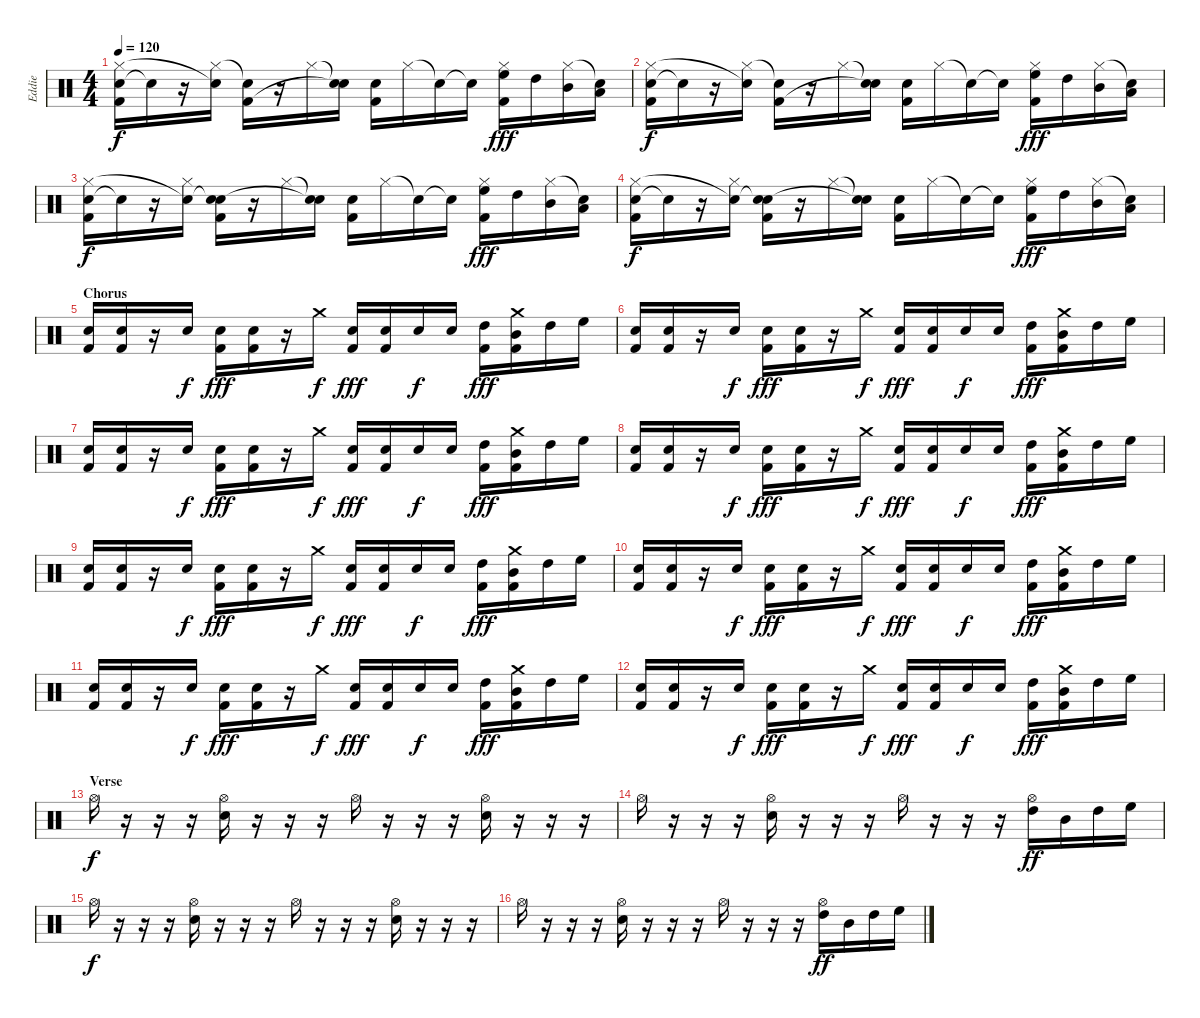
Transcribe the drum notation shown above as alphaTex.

\track ("Eddie" "Eddie") {instrument percussion}
\staff {score}
\articulation defaults
\ts (4 4)
\tempo 120
\clef neutral
\ks c
("Snare (hit) 2" "Hi-Hat (closed)" "Kick (hit) 2").16{dy f} "Snare (hit)"{t}.16 r.16 ("Hi-Hat (closed)" "Snare (hit)"{t}).16 ("Snare (hit)"{t} "Kick (hit) 2").16 r.16 "Hi-Hat (closed)".16 ("Snare (hit)"{t} "Snare (hit)"{t}).16 ("Snare (hit) 2" "Kick (hit) 2").16 "Hi-Hat (closed)".16 "Snare (hit)"{t}.16 "Snare (hit)"{t}.16 ("High Floor Tom (hit)" "Hi-Hat (closed)" "Kick (hit) 2").16{dy fff} "High Tom (hit)".16 ("Mid Tom (hit)" "Hi-Hat (closed)").16 ("Low Tom (hit)" "Snare (hit)"{t}).16 |
("Snare (hit) 2" "Hi-Hat (closed)" "Kick (hit) 2").16{dy f} "Snare (hit)"{t}.16 r.16 ("Hi-Hat (closed)" "Snare (hit)"{t}).16 ("Snare (hit)"{t} "Kick (hit) 2").16 r.16 "Hi-Hat (closed)".16 ("Snare (hit)"{t} "Snare (hit)"{t}).16 ("Snare (hit) 2" "Kick (hit) 2").16 "Hi-Hat (closed)".16 "Snare (hit)"{t}.16 "Snare (hit)"{t}.16 ("High Floor Tom (hit)" "Hi-Hat (closed)" "Kick (hit) 2").16{dy fff} "High Tom (hit)".16 ("Mid Tom (hit)" "Hi-Hat (closed)").16 ("Low Tom (hit)" "Snare (hit)"{t}).16 |
("Snare (hit) 2" "Hi-Hat (closed)" "Kick (hit) 2").16{dy f} "Snare (hit)"{t}.16 r.16 ("Hi-Hat (closed)" "Snare (hit)"{t}).16 ("Snare (hit) 2" "Snare (hit)"{t} "Kick (hit) 2").16 r.16 "Hi-Hat (closed)".16 ("Snare (hit)"{t} "Snare (hit)"{t}).16 ("Snare (hit) 2" "Kick (hit) 2").16 "Hi-Hat (closed)".16 "Snare (hit)"{t}.16 "Snare (hit)"{t}.16 ("High Floor Tom (hit)" "Hi-Hat (closed)" "Kick (hit) 2").16{dy fff} "High Tom (hit)".16 ("Mid Tom (hit)" "Hi-Hat (closed)").16 ("Low Tom (hit)" "Snare (hit)"{t}).16 |
("Snare (hit) 2" "Hi-Hat (closed)" "Kick (hit) 2").16{dy f} "Snare (hit)"{t}.16 r.16 ("Hi-Hat (closed)" "Snare (hit)"{t}).16 ("Snare (hit) 2" "Snare (hit)"{t} "Kick (hit) 2").16 r.16 "Hi-Hat (closed)".16 ("Snare (hit)"{t} "Snare (hit)"{t}).16 ("Snare (hit) 2" "Kick (hit) 2").16 "Hi-Hat (closed)".16 "Snare (hit)"{t}.16 "Snare (hit)"{t}.16 ("High Floor Tom (hit)" "Hi-Hat (closed)" "Kick (hit) 2").16{dy fff} "High Tom (hit)".16 ("Mid Tom (hit)" "Hi-Hat (closed)").16 ("Low Tom (hit)" "Snare (hit)"{t}).16 |
\section ("" "Chorus")
("Snare (hit) 2" "Kick (hit) 2").16 ("Electric Snare (hit)" "Kick (hit) 2").16 r.16 "Electric Snare (hit)".16{dy f} ("Snare (hit) 2" "Kick (hit) 2").16{dy fff} ("Electric Snare (hit)" "Kick (hit) 2").16 r.16 "Crash medium (hit)".16{dy f} ("Snare (hit) 2" "Kick (hit) 2").16{dy fff} ("Electric Snare (hit)" "Kick (hit) 2").16 "Snare (hit) 2".16{dy f} "Electric Snare (hit)".16 ("High Tom (hit)" "Kick (hit) 2").16{dy fff} ("Mid Tom (hit)" "Crash medium (hit)" "Kick (hit) 2").16 "High Tom (hit)".16 "High Floor Tom (hit)".16 |
("Snare (hit) 2" "Kick (hit) 2").16 ("Electric Snare (hit)" "Kick (hit) 2").16 r.16 "Electric Snare (hit)".16{dy f} ("Snare (hit) 2" "Kick (hit) 2").16{dy fff} ("Electric Snare (hit)" "Kick (hit) 2").16 r.16 "Crash medium (hit)".16{dy f} ("Snare (hit) 2" "Kick (hit) 2").16{dy fff} ("Electric Snare (hit)" "Kick (hit) 2").16 "Snare (hit) 2".16{dy f} "Electric Snare (hit)".16 ("High Tom (hit)" "Kick (hit) 2").16{dy fff} ("Mid Tom (hit)" "Crash medium (hit)" "Kick (hit) 2").16 "High Tom (hit)".16 "High Floor Tom (hit)".16 |
("Snare (hit) 2" "Kick (hit) 2").16 ("Electric Snare (hit)" "Kick (hit) 2").16 r.16 "Electric Snare (hit)".16{dy f} ("Snare (hit) 2" "Kick (hit) 2").16{dy fff} ("Electric Snare (hit)" "Kick (hit) 2").16 r.16 "Crash medium (hit)".16{dy f} ("Snare (hit) 2" "Kick (hit) 2").16{dy fff} ("Electric Snare (hit)" "Kick (hit) 2").16 "Snare (hit) 2".16{dy f} "Electric Snare (hit)".16 ("High Tom (hit)" "Kick (hit) 2").16{dy fff} ("Mid Tom (hit)" "Crash medium (hit)" "Kick (hit) 2").16 "High Tom (hit)".16 "High Floor Tom (hit)".16 |
("Snare (hit) 2" "Kick (hit) 2").16 ("Electric Snare (hit)" "Kick (hit) 2").16 r.16 "Electric Snare (hit)".16{dy f} ("Snare (hit) 2" "Kick (hit) 2").16{dy fff} ("Electric Snare (hit)" "Kick (hit) 2").16 r.16 "Crash medium (hit)".16{dy f} ("Snare (hit) 2" "Kick (hit) 2").16{dy fff} ("Electric Snare (hit)" "Kick (hit) 2").16 "Snare (hit) 2".16{dy f} "Electric Snare (hit)".16 ("High Tom (hit)" "Kick (hit) 2").16{dy fff} ("Mid Tom (hit)" "Crash medium (hit)" "Kick (hit) 2").16 "High Tom (hit)".16 "High Floor Tom (hit)".16 |
("Snare (hit) 2" "Kick (hit) 2").16 ("Electric Snare (hit)" "Kick (hit) 2").16 r.16 "Electric Snare (hit)".16{dy f} ("Snare (hit) 2" "Kick (hit) 2").16{dy fff} ("Electric Snare (hit)" "Kick (hit) 2").16 r.16 "Crash medium (hit)".16{dy f} ("Snare (hit) 2" "Kick (hit) 2").16{dy fff} ("Electric Snare (hit)" "Kick (hit) 2").16 "Snare (hit) 2".16{dy f} "Electric Snare (hit)".16 ("High Tom (hit)" "Kick (hit) 2").16{dy fff} ("Mid Tom (hit)" "Crash medium (hit)" "Kick (hit) 2").16 "High Tom (hit)".16 "High Floor Tom (hit)".16 |
("Snare (hit) 2" "Kick (hit) 2").16 ("Electric Snare (hit)" "Kick (hit) 2").16 r.16 "Electric Snare (hit)".16{dy f} ("Snare (hit) 2" "Kick (hit) 2").16{dy fff} ("Electric Snare (hit)" "Kick (hit) 2").16 r.16 "Crash medium (hit)".16{dy f} ("Snare (hit) 2" "Kick (hit) 2").16{dy fff} ("Electric Snare (hit)" "Kick (hit) 2").16 "Snare (hit) 2".16{dy f} "Electric Snare (hit)".16 ("High Tom (hit)" "Kick (hit) 2").16{dy fff} ("Mid Tom (hit)" "Crash medium (hit)" "Kick (hit) 2").16 "High Tom (hit)".16 "High Floor Tom (hit)".16 |
("Snare (hit) 2" "Kick (hit) 2").16 ("Electric Snare (hit)" "Kick (hit) 2").16 r.16 "Electric Snare (hit)".16{dy f} ("Snare (hit) 2" "Kick (hit) 2").16{dy fff} ("Electric Snare (hit)" "Kick (hit) 2").16 r.16 "Crash medium (hit)".16{dy f} ("Snare (hit) 2" "Kick (hit) 2").16{dy fff} ("Electric Snare (hit)" "Kick (hit) 2").16 "Snare (hit) 2".16{dy f} "Electric Snare (hit)".16 ("High Tom (hit)" "Kick (hit) 2").16{dy fff} ("Mid Tom (hit)" "Crash medium (hit)" "Kick (hit) 2").16 "High Tom (hit)".16 "High Floor Tom (hit)".16 |
("Snare (hit) 2" "Kick (hit) 2").16 ("Electric Snare (hit)" "Kick (hit) 2").16 r.16 "Electric Snare (hit)".16{dy f} ("Snare (hit) 2" "Kick (hit) 2").16{dy fff} ("Electric Snare (hit)" "Kick (hit) 2").16 r.16 "Crash medium (hit)".16{dy f} ("Snare (hit) 2" "Kick (hit) 2").16{dy fff} ("Electric Snare (hit)" "Kick (hit) 2").16 "Snare (hit) 2".16{dy f} "Electric Snare (hit)".16 ("High Tom (hit)" "Kick (hit) 2").16{dy fff} ("Mid Tom (hit)" "Crash medium (hit)" "Kick (hit) 2").16 "High Tom (hit)".16 "High Floor Tom (hit)".16 |
\section ("" "Verse")
"Hi-Hat (open)".16{dy f} r.16 r.16 r.16 ("Snare (hit) 2" "Hi-Hat (open)").16 r.16 r.16 r.16 "Hi-Hat (open)".16 r.16 r.16 r.16 ("Snare (hit) 2" "Hi-Hat (open)").16 r.16 r.16 r.16 |
"Hi-Hat (open)".16 r.16 r.16 r.16 ("Snare (hit) 2" "Hi-Hat (open)").16 r.16 r.16 r.16 "Hi-Hat (open)".16 r.16 r.16 r.16 ("High Tom (hit)" "Hi-Hat (open)").16{dy ff} "Mid Tom (hit)".16 "High Tom (hit)".16 "High Floor Tom (hit)".16 |
"Hi-Hat (open)".16{dy f} r.16 r.16 r.16 ("Snare (hit) 2" "Hi-Hat (open)").16 r.16 r.16 r.16 "Hi-Hat (open)".16 r.16 r.16 r.16 ("Snare (hit) 2" "Hi-Hat (open)").16 r.16 r.16 r.16 |
"Hi-Hat (open)".16 r.16 r.16 r.16 ("Snare (hit) 2" "Hi-Hat (open)").16 r.16 r.16 r.16 "Hi-Hat (open)".16 r.16 r.16 r.16 ("High Tom (hit)" "Hi-Hat (open)").16{dy ff} "Mid Tom (hit)".16 "High Tom (hit)".16 "High Floor Tom (hit)".16
